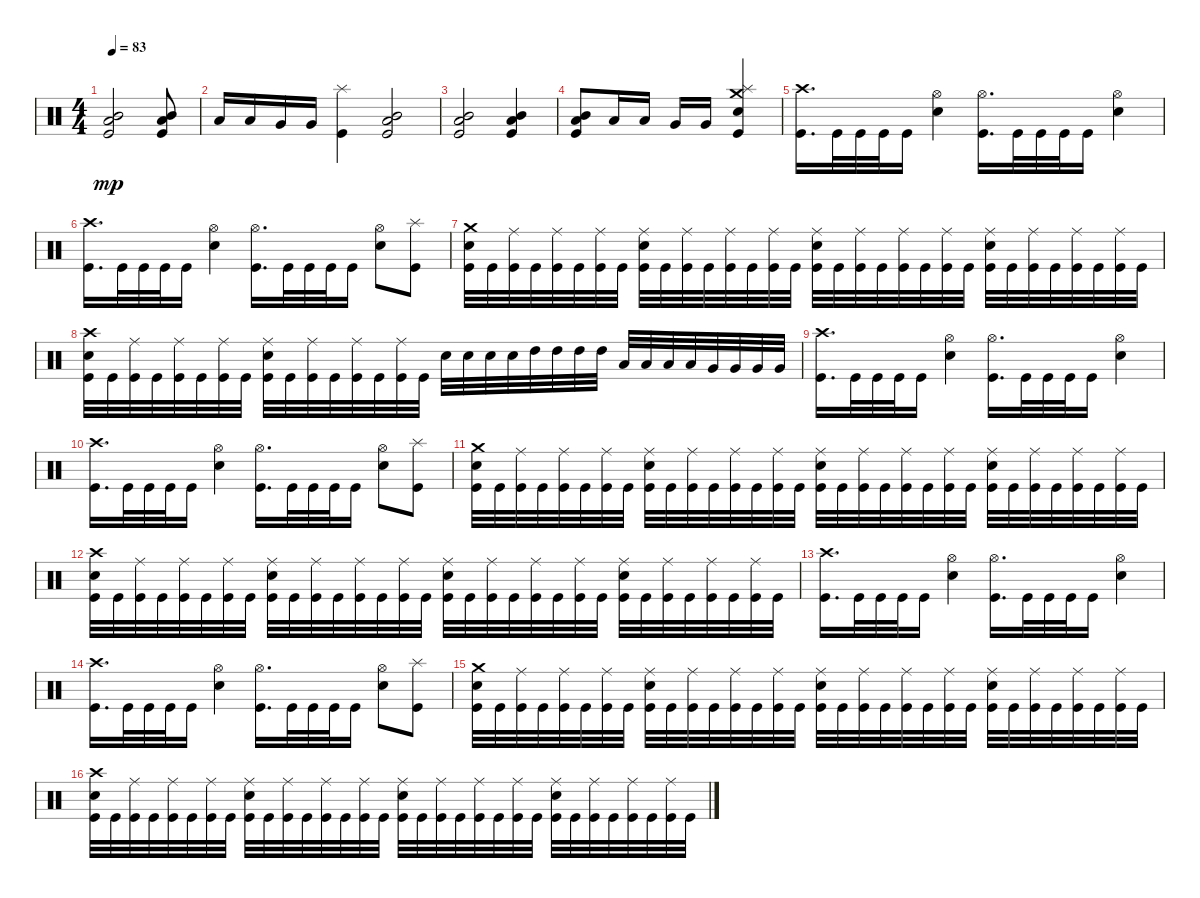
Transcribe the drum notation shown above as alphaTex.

\track "" {instrument percussion}
\staff {score}
\articulation defaults
\ts (4 4)
\tempo 83
\clef neutral
\ks c
("Mid Tom (hit)" "Low Tom (hit)" "Kick (hit)").2{dy mp} ("Kick (hit)" "Low Tom (hit)" "Mid Tom (hit)").8 |
"Low Floor Tom (hit)".16 "Low Floor Tom (hit)".16 "Very Low Tom (hit)".16 "Very Low Tom (hit)".16 ("Splash (hit)" "Kick (hit)").4 ("Kick (hit)" "Low Tom (hit)" "Mid Tom (hit)").2 |
("Kick (hit)" "Mid Tom (hit)" "Low Tom (hit)").2 ("Mid Tom (hit)" "Low Tom (hit)" "Kick (hit)").4 |
("Kick (hit)" "Low Tom (hit)" "Mid Tom (hit)").8 "Low Floor Tom (hit)".16 "Low Floor Tom (hit)".16 "Very Low Tom (hit)".16 "Very Low Tom (hit)".16 ("Crash medium (hit)" "Snare (hit) 2" "Splash (hit)" "Kick (hit)").4 |
("Kick (hit)" "Crash high (hit)").16{d} "Kick (hit)".32 "Kick (hit)".32 "Kick (hit)".32 "Kick (hit)".16 ("Hi-Hat (open)" "Snare (hit) 2").4 ("Kick (hit)" "Hi-Hat (open)").16{d} "Kick (hit)".32 "Kick (hit)".32 "Kick (hit)".32 "Kick (hit)".16 ("Hi-Hat (open)" "Snare (hit) 2").4 |
("Kick (hit)" "Crash high (hit)").16{d} "Kick (hit)".32 "Kick (hit)".32 "Kick (hit)".32 "Kick (hit)".16 ("Hi-Hat (open)" "Snare (hit) 2").4 ("Kick (hit)" "Hi-Hat (open)").16{d} "Kick (hit)".32 "Kick (hit)".32 "Kick (hit)".32 "Kick (hit)".16 ("Hi-Hat (open)" "Snare (hit) 2").8 ("Kick (hit)" "Splash (hit)").8 |
("Kick (hit)" "Crash medium (hit)" "Snare (hit) 2").32 "Kick (hit)".32 ("Kick (hit)" "Ride (middle)").32 "Kick (hit)".32 ("Kick (hit)" "Ride (middle)").32 "Kick (hit)".32 ("Kick (hit)" "Ride (middle)").32 "Kick (hit)".32 ("Kick (hit)" "Ride (middle)" "Snare (hit) 2").32 "Kick (hit)".32 ("Kick (hit)" "Ride (middle)").32 "Kick (hit)".32 ("Kick (hit)" "Ride (middle)").32 "Kick (hit)".32 ("Kick (hit)" "Ride (middle)").32 "Kick (hit)".32 ("Kick (hit)" "Ride (middle)" "Snare (hit) 2").32 "Kick (hit)".32 ("Kick (hit)" "Ride (middle)").32 "Kick (hit)".32 ("Kick (hit)" "Ride (middle)").32 "Kick (hit)".32 ("Kick (hit)" "Ride (middle)").32 "Kick (hit)".32 ("Kick (hit)" "Ride (middle)" "Snare (hit) 2").32 "Kick (hit)".32 ("Kick (hit)" "Ride (middle)").32 "Kick (hit)".32 ("Kick (hit)" "Ride (middle)").32 "Kick (hit)".32 ("Kick (hit)" "Ride (middle)").32 "Kick (hit)".32 |
("Kick (hit)" "Snare (hit) 2" "Crash high (hit)").32 "Kick (hit)".32 ("Kick (hit)" "Ride (middle)").32 "Kick (hit)".32 ("Kick (hit)" "Ride (middle)").32 "Kick (hit)".32 ("Kick (hit)" "Ride (middle)").32 "Kick (hit)".32 ("Kick (hit)" "Ride (middle)" "Snare (hit) 2").32 "Kick (hit)".32 ("Kick (hit)" "Ride (middle)").32 "Kick (hit)".32 ("Kick (hit)" "Ride (middle)").32 "Kick (hit)".32 ("Kick (hit)" "Ride (middle)").32 "Kick (hit)".32 "Snare (hit) 2".32 "Snare (hit) 2".32 "Snare (hit) 2".32 "Snare (hit) 2".32 "High Tom (hit)".32 "High Tom (hit)".32 "High Tom (hit)".32 "High Tom (hit)".32 "Low Tom (hit)".32 "Low Tom (hit)".32 "Low Tom (hit)".32 "Low Tom (hit)".32 "Very Low Tom (hit)".32 "Very Low Tom (hit)".32 "Very Low Tom (hit)".32 "Very Low Tom (hit)".32 |
("Kick (hit)" "Crash high (hit)").16{d} "Kick (hit)".32 "Kick (hit)".32 "Kick (hit)".32 "Kick (hit)".16 ("Hi-Hat (open)" "Snare (hit) 2").4 ("Kick (hit)" "Hi-Hat (open)").16{d} "Kick (hit)".32 "Kick (hit)".32 "Kick (hit)".32 "Kick (hit)".16 ("Hi-Hat (open)" "Snare (hit) 2").4 |
("Kick (hit)" "Crash high (hit)").16{d} "Kick (hit)".32 "Kick (hit)".32 "Kick (hit)".32 "Kick (hit)".16 ("Hi-Hat (open)" "Snare (hit) 2").4 ("Kick (hit)" "Hi-Hat (open)").16{d} "Kick (hit)".32 "Kick (hit)".32 "Kick (hit)".32 "Kick (hit)".16 ("Hi-Hat (open)" "Snare (hit) 2").8 ("Kick (hit)" "Splash (hit)").8 |
("Kick (hit)" "Crash medium (hit)" "Snare (hit) 2").32 "Kick (hit)".32 ("Kick (hit)" "Ride (middle)").32 "Kick (hit)".32 ("Kick (hit)" "Ride (middle)").32 "Kick (hit)".32 ("Kick (hit)" "Ride (middle)").32 "Kick (hit)".32 ("Kick (hit)" "Ride (middle)" "Snare (hit) 2").32 "Kick (hit)".32 ("Kick (hit)" "Ride (middle)").32 "Kick (hit)".32 ("Kick (hit)" "Ride (middle)").32 "Kick (hit)".32 ("Kick (hit)" "Ride (middle)").32 "Kick (hit)".32 ("Kick (hit)" "Ride (middle)" "Snare (hit) 2").32 "Kick (hit)".32 ("Kick (hit)" "Ride (middle)").32 "Kick (hit)".32 ("Kick (hit)" "Ride (middle)").32 "Kick (hit)".32 ("Kick (hit)" "Ride (middle)").32 "Kick (hit)".32 ("Kick (hit)" "Ride (middle)" "Snare (hit) 2").32 "Kick (hit)".32 ("Kick (hit)" "Ride (middle)").32 "Kick (hit)".32 ("Kick (hit)" "Ride (middle)").32 "Kick (hit)".32 ("Kick (hit)" "Ride (middle)").32 "Kick (hit)".32 |
("Kick (hit)" "Snare (hit) 2" "Crash high (hit)").32 "Kick (hit)".32 ("Kick (hit)" "Ride (middle)").32 "Kick (hit)".32 ("Kick (hit)" "Ride (middle)").32 "Kick (hit)".32 ("Kick (hit)" "Ride (middle)").32 "Kick (hit)".32 ("Kick (hit)" "Ride (middle)" "Snare (hit) 2").32 "Kick (hit)".32 ("Kick (hit)" "Ride (middle)").32 "Kick (hit)".32 ("Kick (hit)" "Ride (middle)").32 "Kick (hit)".32 ("Kick (hit)" "Ride (middle)").32 "Kick (hit)".32 ("Kick (hit)" "Ride (middle)" "Snare (hit) 2").32 "Kick (hit)".32 ("Kick (hit)" "Ride (middle)").32 "Kick (hit)".32 ("Kick (hit)" "Ride (middle)").32 "Kick (hit)".32 ("Kick (hit)" "Ride (middle)").32 "Kick (hit)".32 ("Kick (hit)" "Ride (middle)" "Snare (hit) 2").32 "Kick (hit)".32 ("Kick (hit)" "Ride (middle)").32 "Kick (hit)".32 ("Kick (hit)" "Ride (middle)").32 "Kick (hit)".32 ("Kick (hit)" "Ride (middle)").32 "Kick (hit)".32 |
("Kick (hit)" "Crash high (hit)").16{d} "Kick (hit)".32 "Kick (hit)".32 "Kick (hit)".32 "Kick (hit)".16 ("Hi-Hat (open)" "Snare (hit) 2").4 ("Kick (hit)" "Hi-Hat (open)").16{d} "Kick (hit)".32 "Kick (hit)".32 "Kick (hit)".32 "Kick (hit)".16 ("Hi-Hat (open)" "Snare (hit) 2").4 |
("Kick (hit)" "Crash high (hit)").16{d} "Kick (hit)".32 "Kick (hit)".32 "Kick (hit)".32 "Kick (hit)".16 ("Hi-Hat (open)" "Snare (hit) 2").4 ("Kick (hit)" "Hi-Hat (open)").16{d} "Kick (hit)".32 "Kick (hit)".32 "Kick (hit)".32 "Kick (hit)".16 ("Hi-Hat (open)" "Snare (hit) 2").8 ("Kick (hit)" "Splash (hit)").8 |
("Kick (hit)" "Crash medium (hit)" "Snare (hit) 2").32 "Kick (hit)".32 ("Kick (hit)" "Ride (middle)").32 "Kick (hit)".32 ("Kick (hit)" "Ride (middle)").32 "Kick (hit)".32 ("Kick (hit)" "Ride (middle)").32 "Kick (hit)".32 ("Kick (hit)" "Ride (middle)" "Snare (hit) 2").32 "Kick (hit)".32 ("Kick (hit)" "Ride (middle)").32 "Kick (hit)".32 ("Kick (hit)" "Ride (middle)").32 "Kick (hit)".32 ("Kick (hit)" "Ride (middle)").32 "Kick (hit)".32 ("Kick (hit)" "Ride (middle)" "Snare (hit) 2").32 "Kick (hit)".32 ("Kick (hit)" "Ride (middle)").32 "Kick (hit)".32 ("Kick (hit)" "Ride (middle)").32 "Kick (hit)".32 ("Kick (hit)" "Ride (middle)").32 "Kick (hit)".32 ("Kick (hit)" "Ride (middle)" "Snare (hit) 2").32 "Kick (hit)".32 ("Kick (hit)" "Ride (middle)").32 "Kick (hit)".32 ("Kick (hit)" "Ride (middle)").32 "Kick (hit)".32 ("Kick (hit)" "Ride (middle)").32 "Kick (hit)".32 |
("Kick (hit)" "Snare (hit) 2" "Crash high (hit)").32 "Kick (hit)".32 ("Kick (hit)" "Ride (middle)").32 "Kick (hit)".32 ("Kick (hit)" "Ride (middle)").32 "Kick (hit)".32 ("Kick (hit)" "Ride (middle)").32 "Kick (hit)".32 ("Kick (hit)" "Ride (middle)" "Snare (hit) 2").32 "Kick (hit)".32 ("Kick (hit)" "Ride (middle)").32 "Kick (hit)".32 ("Kick (hit)" "Ride (middle)").32 "Kick (hit)".32 ("Kick (hit)" "Ride (middle)").32 "Kick (hit)".32 ("Kick (hit)" "Ride (middle)" "Snare (hit) 2").32 "Kick (hit)".32 ("Kick (hit)" "Ride (middle)").32 "Kick (hit)".32 ("Kick (hit)" "Ride (middle)").32 "Kick (hit)".32 ("Kick (hit)" "Ride (middle)").32 "Kick (hit)".32 ("Kick (hit)" "Ride (middle)" "Snare (hit) 2").32 "Kick (hit)".32 ("Kick (hit)" "Ride (middle)").32 "Kick (hit)".32 ("Kick (hit)" "Ride (middle)").32 "Kick (hit)".32 ("Kick (hit)" "Ride (middle)").32 "Kick (hit)".32
